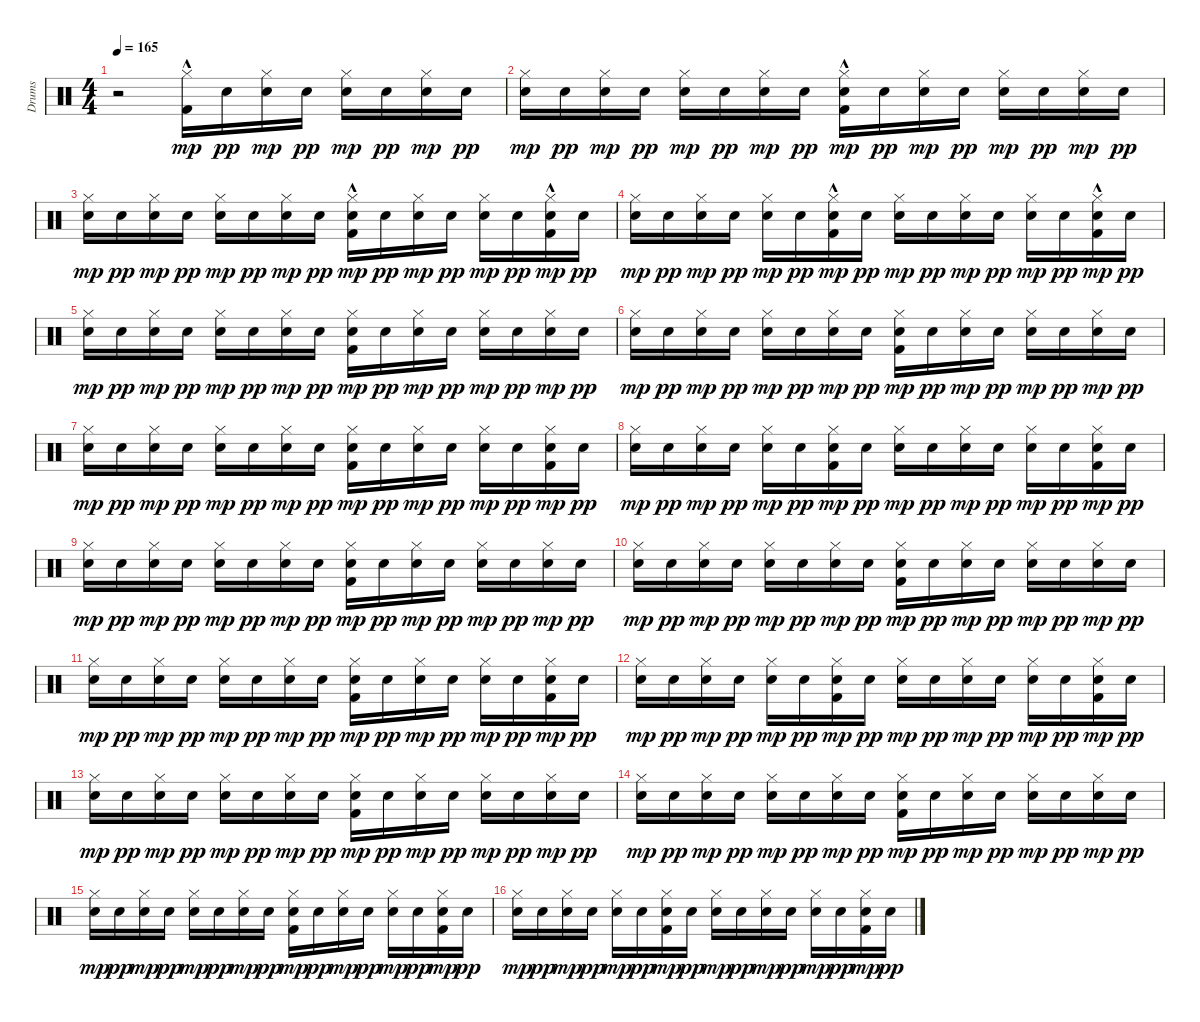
\track ("Drums" "Drums") {instrument percussion}
\staff {score}
\articulation defaults
\ts (4 4)
\tempo 165
\clef neutral
\ks c
r.2{dy f volume 3} ("Kick (hit) 2"{hac} "Hi-Hat (closed)").16{dy mp} "Snare (hit) 2".16{dy pp} ("Snare (hit) 2" "Hi-Hat (closed)").16{dy mp} "Snare (hit) 2".16{dy pp} ("Snare (hit) 2" "Hi-Hat (closed)").16{dy mp} "Snare (hit) 2".16{dy pp} ("Snare (hit) 2" "Hi-Hat (closed)").16{dy mp} "Snare (hit) 2".16{dy pp} |
("Electric Snare (hit)" "Hi-Hat (closed)").16{dy mp} "Snare (hit) 2".16{dy pp} ("Snare (hit) 2" "Hi-Hat (closed)").16{dy mp} "Snare (hit) 2".16{dy pp} ("Snare (hit) 2" "Hi-Hat (closed)").16{dy mp} "Snare (hit) 2".16{dy pp} ("Snare (hit) 2" "Hi-Hat (closed)").16{dy mp} "Snare (hit) 2".16{dy pp} ("Kick (hit) 2"{hac} "Snare (hit) 2" "Hi-Hat (closed)").16{dy mp} "Snare (hit) 2".16{dy pp} ("Snare (hit) 2" "Hi-Hat (closed)").16{dy mp} "Snare (hit) 2".16{dy pp} ("Snare (hit) 2" "Hi-Hat (closed)").16{dy mp} "Snare (hit) 2".16{dy pp} ("Snare (hit) 2" "Hi-Hat (closed)").16{dy mp} "Snare (hit) 2".16{dy pp volume 3} |
("Electric Snare (hit)" "Hi-Hat (closed)").16{dy mp volume 8} "Snare (hit) 2".16{dy pp} ("Snare (hit) 2" "Hi-Hat (closed)").16{dy mp} "Snare (hit) 2".16{dy pp} ("Electric Snare (hit)" "Hi-Hat (closed)").16{dy mp} "Snare (hit) 2".16{dy pp} ("Snare (hit) 2" "Hi-Hat (closed)").16{dy mp} "Snare (hit) 2".16{dy pp} ("Kick (hit) 2"{hac} "Snare (hit) 2" "Hi-Hat (closed)").16{dy mp} "Snare (hit) 2".16{dy pp} ("Snare (hit) 2" "Hi-Hat (closed)").16{dy mp} "Snare (hit) 2".16{dy pp} ("Snare (hit) 2" "Hi-Hat (closed)").16{dy mp} "Snare (hit) 2".16{dy pp} ("Kick (hit) 2"{hac} "Snare (hit) 2" "Hi-Hat (closed)").16{dy mp} "Snare (hit) 2".16{dy pp} |
("Electric Snare (hit)" "Hi-Hat (closed)").16{dy mp} "Snare (hit) 2".16{dy pp} ("Electric Snare (hit)" "Hi-Hat (closed)").16{dy mp} "Snare (hit) 2".16{dy pp} ("Snare (hit) 2" "Hi-Hat (closed)").16{dy mp} "Snare (hit) 2".16{dy pp} ("Kick (hit) 2"{hac} "Snare (hit) 2" "Hi-Hat (closed)").16{dy mp} "Snare (hit) 2".16{dy pp} ("Electric Snare (hit)" "Hi-Hat (closed)").16{dy mp} "Snare (hit) 2".16{dy pp} ("Electric Snare (hit)" "Hi-Hat (closed)").16{dy mp} "Snare (hit) 2".16{dy pp} ("Snare (hit) 2" "Hi-Hat (closed)").16{dy mp} "Snare (hit) 2".16{dy pp} ("Kick (hit) 2"{hac} "Snare (hit) 2" "Hi-Hat (closed)").16{dy mp} "Snare (hit) 2".16{dy pp} |
("Electric Snare (hit)" "Hi-Hat (closed)").16{dy mp} "Snare (hit) 2".16{dy pp} ("Snare (hit) 2" "Hi-Hat (closed)").16{dy mp} "Snare (hit) 2".16{dy pp} ("Electric Snare (hit)" "Hi-Hat (closed)").16{dy mp} "Snare (hit) 2".16{dy pp} ("Electric Snare (hit)" "Hi-Hat (closed)").16{dy mp} "Snare (hit) 2".16{dy pp} ("Kick (hit) 2" "Snare (hit) 2" "Hi-Hat (closed)").16{dy mp} "Snare (hit) 2".16{dy pp} ("Snare (hit) 2" "Hi-Hat (closed)").16{dy mp} "Snare (hit) 2".16{dy pp} ("Snare (hit) 2" "Hi-Hat (closed)").16{dy mp} "Snare (hit) 2".16{dy pp} ("Snare (hit) 2" "Hi-Hat (closed)").16{dy mp} "Snare (hit) 2".16{dy pp} |
("Electric Snare (hit)" "Hi-Hat (closed)").16{dy mp} "Snare (hit) 2".16{dy pp} ("Snare (hit) 2" "Hi-Hat (closed)").16{dy mp} "Snare (hit) 2".16{dy pp} ("Snare (hit) 2" "Hi-Hat (closed)").16{dy mp} "Snare (hit) 2".16{dy pp} ("Snare (hit) 2" "Hi-Hat (closed)").16{dy mp} "Snare (hit) 2".16{dy pp} ("Kick (hit) 2" "Snare (hit) 2" "Hi-Hat (closed)").16{dy mp} "Snare (hit) 2".16{dy pp} ("Snare (hit) 2" "Hi-Hat (closed)").16{dy mp} "Snare (hit) 2".16{dy pp} ("Snare (hit) 2" "Hi-Hat (closed)").16{dy mp} "Snare (hit) 2".16{dy pp} ("Snare (hit) 2" "Hi-Hat (closed)").16{dy mp} "Snare (hit) 2".16{dy pp} |
("Electric Snare (hit)" "Hi-Hat (closed)").16{dy mp} "Snare (hit) 2".16{dy pp} ("Snare (hit) 2" "Hi-Hat (closed)").16{dy mp} "Snare (hit) 2".16{dy pp} ("Electric Snare (hit)" "Hi-Hat (closed)").16{dy mp} "Snare (hit) 2".16{dy pp} ("Snare (hit) 2" "Hi-Hat (closed)").16{dy mp} "Snare (hit) 2".16{dy pp} ("Kick (hit) 2" "Snare (hit) 2" "Hi-Hat (closed)").16{dy mp} "Snare (hit) 2".16{dy pp} ("Snare (hit) 2" "Hi-Hat (closed)").16{dy mp} "Snare (hit) 2".16{dy pp} ("Snare (hit) 2" "Hi-Hat (closed)").16{dy mp} "Snare (hit) 2".16{dy pp} ("Kick (hit) 2" "Snare (hit) 2" "Hi-Hat (closed)").16{dy mp} "Snare (hit) 2".16{dy pp} |
("Electric Snare (hit)" "Hi-Hat (closed)").16{dy mp} "Snare (hit) 2".16{dy pp} ("Electric Snare (hit)" "Hi-Hat (closed)").16{dy mp} "Snare (hit) 2".16{dy pp} ("Snare (hit) 2" "Hi-Hat (closed)").16{dy mp} "Snare (hit) 2".16{dy pp} ("Kick (hit) 2" "Snare (hit) 2" "Hi-Hat (closed)").16{dy mp} "Snare (hit) 2".16{dy pp} ("Electric Snare (hit)" "Hi-Hat (closed)").16{dy mp} "Snare (hit) 2".16{dy pp} ("Electric Snare (hit)" "Hi-Hat (closed)").16{dy mp} "Snare (hit) 2".16{dy pp} ("Snare (hit) 2" "Hi-Hat (closed)").16{dy mp} "Snare (hit) 2".16{dy pp} ("Kick (hit) 2" "Snare (hit) 2" "Hi-Hat (closed)").16{dy mp} "Snare (hit) 2".16{dy pp} |
("Electric Snare (hit)" "Hi-Hat (closed)").16{dy mp} "Snare (hit) 2".16{dy pp} ("Snare (hit) 2" "Hi-Hat (closed)").16{dy mp} "Snare (hit) 2".16{dy pp} ("Electric Snare (hit)" "Hi-Hat (closed)").16{dy mp} "Snare (hit) 2".16{dy pp} ("Electric Snare (hit)" "Hi-Hat (closed)").16{dy mp} "Snare (hit) 2".16{dy pp} ("Kick (hit) 2" "Snare (hit) 2" "Hi-Hat (closed)").16{dy mp} "Snare (hit) 2".16{dy pp} ("Snare (hit) 2" "Hi-Hat (closed)").16{dy mp} "Snare (hit) 2".16{dy pp} ("Snare (hit) 2" "Hi-Hat (closed)").16{dy mp} "Snare (hit) 2".16{dy pp} ("Snare (hit) 2" "Hi-Hat (closed)").16{dy mp} "Snare (hit) 2".16{dy pp} |
("Electric Snare (hit)" "Hi-Hat (closed)").16{dy mp} "Snare (hit) 2".16{dy pp} ("Snare (hit) 2" "Hi-Hat (closed)").16{dy mp} "Snare (hit) 2".16{dy pp} ("Snare (hit) 2" "Hi-Hat (closed)").16{dy mp} "Snare (hit) 2".16{dy pp} ("Snare (hit) 2" "Hi-Hat (closed)").16{dy mp} "Snare (hit) 2".16{dy pp} ("Kick (hit) 2" "Snare (hit) 2" "Hi-Hat (closed)").16{dy mp} "Snare (hit) 2".16{dy pp} ("Snare (hit) 2" "Hi-Hat (closed)").16{dy mp} "Snare (hit) 2".16{dy pp} ("Snare (hit) 2" "Hi-Hat (closed)").16{dy mp} "Snare (hit) 2".16{dy pp} ("Snare (hit) 2" "Hi-Hat (closed)").16{dy mp} "Snare (hit) 2".16{dy pp} |
("Electric Snare (hit)" "Hi-Hat (closed)").16{dy mp} "Snare (hit) 2".16{dy pp} ("Snare (hit) 2" "Hi-Hat (closed)").16{dy mp} "Snare (hit) 2".16{dy pp} ("Electric Snare (hit)" "Hi-Hat (closed)").16{dy mp} "Snare (hit) 2".16{dy pp} ("Snare (hit) 2" "Hi-Hat (closed)").16{dy mp} "Snare (hit) 2".16{dy pp} ("Kick (hit) 2" "Snare (hit) 2" "Hi-Hat (closed)").16{dy mp} "Snare (hit) 2".16{dy pp} ("Snare (hit) 2" "Hi-Hat (closed)").16{dy mp} "Snare (hit) 2".16{dy pp} ("Snare (hit) 2" "Hi-Hat (closed)").16{dy mp} "Snare (hit) 2".16{dy pp} ("Kick (hit) 2" "Snare (hit) 2" "Hi-Hat (closed)").16{dy mp} "Snare (hit) 2".16{dy pp} |
("Electric Snare (hit)" "Hi-Hat (closed)").16{dy mp} "Snare (hit) 2".16{dy pp} ("Electric Snare (hit)" "Hi-Hat (closed)").16{dy mp} "Snare (hit) 2".16{dy pp} ("Snare (hit) 2" "Hi-Hat (closed)").16{dy mp} "Snare (hit) 2".16{dy pp} ("Kick (hit) 2" "Snare (hit) 2" "Hi-Hat (closed)").16{dy mp} "Snare (hit) 2".16{dy pp} ("Electric Snare (hit)" "Hi-Hat (closed)").16{dy mp} "Snare (hit) 2".16{dy pp} ("Electric Snare (hit)" "Hi-Hat (closed)").16{dy mp} "Snare (hit) 2".16{dy pp} ("Snare (hit) 2" "Hi-Hat (closed)").16{dy mp} "Snare (hit) 2".16{dy pp} ("Kick (hit) 2" "Snare (hit) 2" "Hi-Hat (closed)").16{dy mp} "Snare (hit) 2".16{dy pp} |
("Electric Snare (hit)" "Hi-Hat (closed)").16{dy mp} "Snare (hit) 2".16{dy pp} ("Snare (hit) 2" "Hi-Hat (closed)").16{dy mp} "Snare (hit) 2".16{dy pp} ("Electric Snare (hit)" "Hi-Hat (closed)").16{dy mp} "Snare (hit) 2".16{dy pp} ("Electric Snare (hit)" "Hi-Hat (closed)").16{dy mp} "Snare (hit) 2".16{dy pp} ("Kick (hit) 2" "Snare (hit) 2" "Hi-Hat (closed)").16{dy mp} "Snare (hit) 2".16{dy pp} ("Snare (hit) 2" "Hi-Hat (closed)").16{dy mp} "Snare (hit) 2".16{dy pp} ("Snare (hit) 2" "Hi-Hat (closed)").16{dy mp} "Snare (hit) 2".16{dy pp} ("Snare (hit) 2" "Hi-Hat (closed)").16{dy mp} "Snare (hit) 2".16{dy pp} |
("Electric Snare (hit)" "Hi-Hat (closed)").16{dy mp} "Snare (hit) 2".16{dy pp} ("Snare (hit) 2" "Hi-Hat (closed)").16{dy mp} "Snare (hit) 2".16{dy pp} ("Snare (hit) 2" "Hi-Hat (closed)").16{dy mp} "Snare (hit) 2".16{dy pp} ("Snare (hit) 2" "Hi-Hat (closed)").16{dy mp} "Snare (hit) 2".16{dy pp} ("Kick (hit) 2" "Snare (hit) 2" "Hi-Hat (closed)").16{dy mp} "Snare (hit) 2".16{dy pp} ("Snare (hit) 2" "Hi-Hat (closed)").16{dy mp} "Snare (hit) 2".16{dy pp} ("Snare (hit) 2" "Hi-Hat (closed)").16{dy mp} "Snare (hit) 2".16{dy pp} ("Snare (hit) 2" "Hi-Hat (closed)").16{dy mp} "Snare (hit) 2".16{dy pp} |
("Electric Snare (hit)" "Hi-Hat (closed)").16{dy mp} "Snare (hit) 2".16{dy pp} ("Snare (hit) 2" "Hi-Hat (closed)").16{dy mp} "Snare (hit) 2".16{dy pp} ("Electric Snare (hit)" "Hi-Hat (closed)").16{dy mp} "Snare (hit) 2".16{dy pp} ("Snare (hit) 2" "Hi-Hat (closed)").16{dy mp} "Snare (hit) 2".16{dy pp} ("Kick (hit) 2" "Snare (hit) 2" "Hi-Hat (closed)").16{dy mp} "Snare (hit) 2".16{dy pp} ("Snare (hit) 2" "Hi-Hat (closed)").16{dy mp} "Snare (hit) 2".16{dy pp} ("Snare (hit) 2" "Hi-Hat (closed)").16{dy mp} "Snare (hit) 2".16{dy pp} ("Kick (hit) 2" "Snare (hit) 2" "Hi-Hat (closed)").16{dy mp} "Snare (hit) 2".16{dy pp} |
("Electric Snare (hit)" "Hi-Hat (closed)").16{dy mp} "Snare (hit) 2".16{dy pp} ("Electric Snare (hit)" "Hi-Hat (closed)").16{dy mp} "Snare (hit) 2".16{dy pp} ("Snare (hit) 2" "Hi-Hat (closed)").16{dy mp} "Snare (hit) 2".16{dy pp} ("Kick (hit) 2" "Snare (hit) 2" "Hi-Hat (closed)").16{dy mp} "Snare (hit) 2".16{dy pp} ("Electric Snare (hit)" "Hi-Hat (closed)").16{dy mp} "Snare (hit) 2".16{dy pp} ("Electric Snare (hit)" "Hi-Hat (closed)").16{dy mp} "Snare (hit) 2".16{dy pp} ("Snare (hit) 2" "Hi-Hat (closed)").16{dy mp} "Snare (hit) 2".16{dy pp} ("Kick (hit) 2" "Snare (hit) 2" "Hi-Hat (closed)").16{dy mp} "Snare (hit) 2".16{dy pp}
